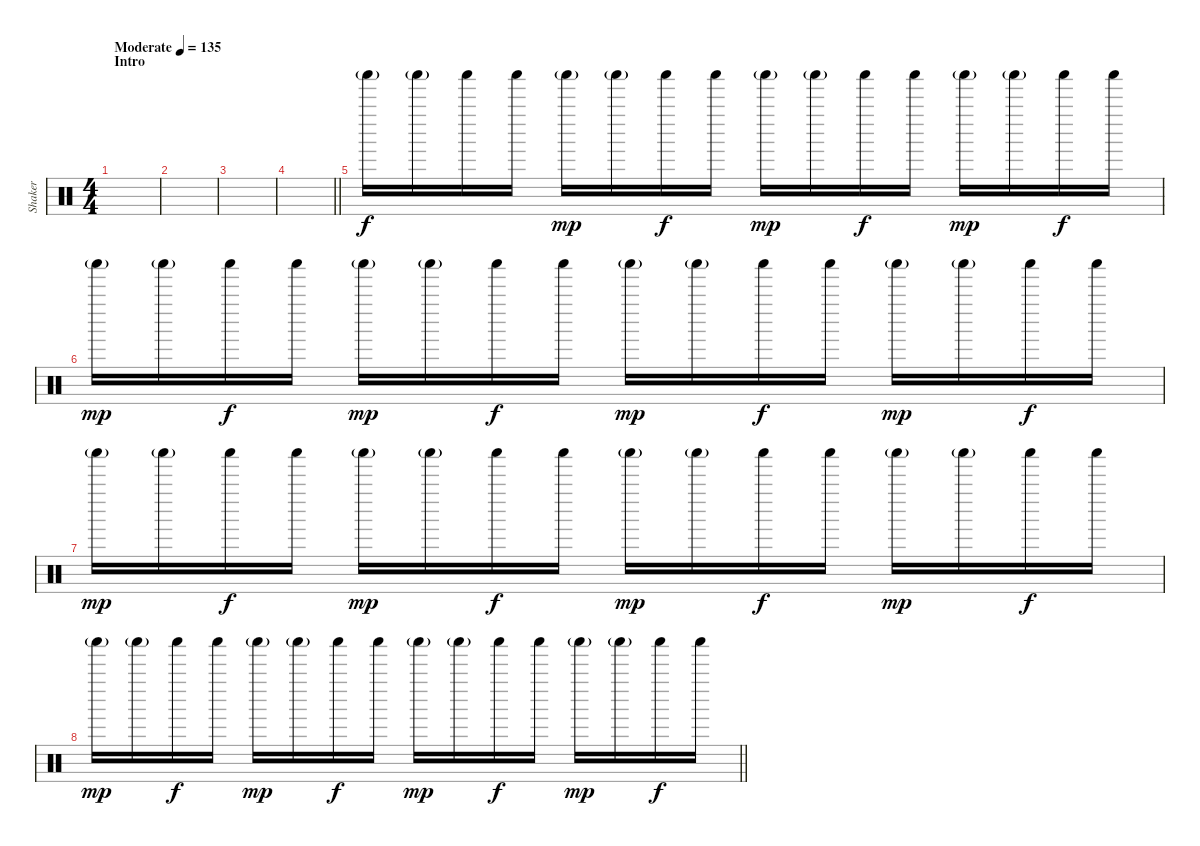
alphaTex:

\track ("Shaker" "Shaker") {instrument percussion}
\staff {score}
\articulation defaults
\ts (4 4)
\section ("" "Intro")
\tempo (135 "Moderate")
\clef neutral
\ks c
|
|
|
\barLineRight lightlight
|
"Shaker (hit)"{g}.16 "Shaker (hit)"{g}.16 "Shaker (hit)".16{dy f} "Shaker (hit)".16 "Shaker (hit)"{g}.16{dy mp} "Shaker (hit)"{g}.16 "Shaker (hit)".16{dy f} "Shaker (hit)".16 "Shaker (hit)"{g}.16{dy mp} "Shaker (hit)"{g}.16 "Shaker (hit)".16{dy f} "Shaker (hit)".16 "Shaker (hit)"{g}.16{dy mp} "Shaker (hit)"{g}.16 "Shaker (hit)".16{dy f} "Shaker (hit)".16 |
"Shaker (hit)"{g}.16{dy mp} "Shaker (hit)"{g}.16 "Shaker (hit)".16{dy f} "Shaker (hit)".16 "Shaker (hit)"{g}.16{dy mp} "Shaker (hit)"{g}.16 "Shaker (hit)".16{dy f} "Shaker (hit)".16 "Shaker (hit)"{g}.16{dy mp} "Shaker (hit)"{g}.16 "Shaker (hit)".16{dy f} "Shaker (hit)".16 "Shaker (hit)"{g}.16{dy mp} "Shaker (hit)"{g}.16 "Shaker (hit)".16{dy f} "Shaker (hit)".16 |
"Shaker (hit)"{g}.16{dy mp} "Shaker (hit)"{g}.16 "Shaker (hit)".16{dy f} "Shaker (hit)".16 "Shaker (hit)"{g}.16{dy mp} "Shaker (hit)"{g}.16 "Shaker (hit)".16{dy f} "Shaker (hit)".16 "Shaker (hit)"{g}.16{dy mp} "Shaker (hit)"{g}.16 "Shaker (hit)".16{dy f} "Shaker (hit)".16 "Shaker (hit)"{g}.16{dy mp} "Shaker (hit)"{g}.16 "Shaker (hit)".16{dy f} "Shaker (hit)".16 |
\barLineRight lightlight "Shaker (hit)"{g}.16{dy mp} "Shaker (hit)"{g}.16 "Shaker (hit)".16{dy f} "Shaker (hit)".16 "Shaker (hit)"{g}.16{dy mp} "Shaker (hit)"{g}.16 "Shaker (hit)".16{dy f} "Shaker (hit)".16 "Shaker (hit)"{g}.16{dy mp} "Shaker (hit)"{g}.16 "Shaker (hit)".16{dy f} "Shaker (hit)".16 "Shaker (hit)"{g}.16{dy mp} "Shaker (hit)"{g}.16 "Shaker (hit)".16{dy f} "Shaker (hit)".16
